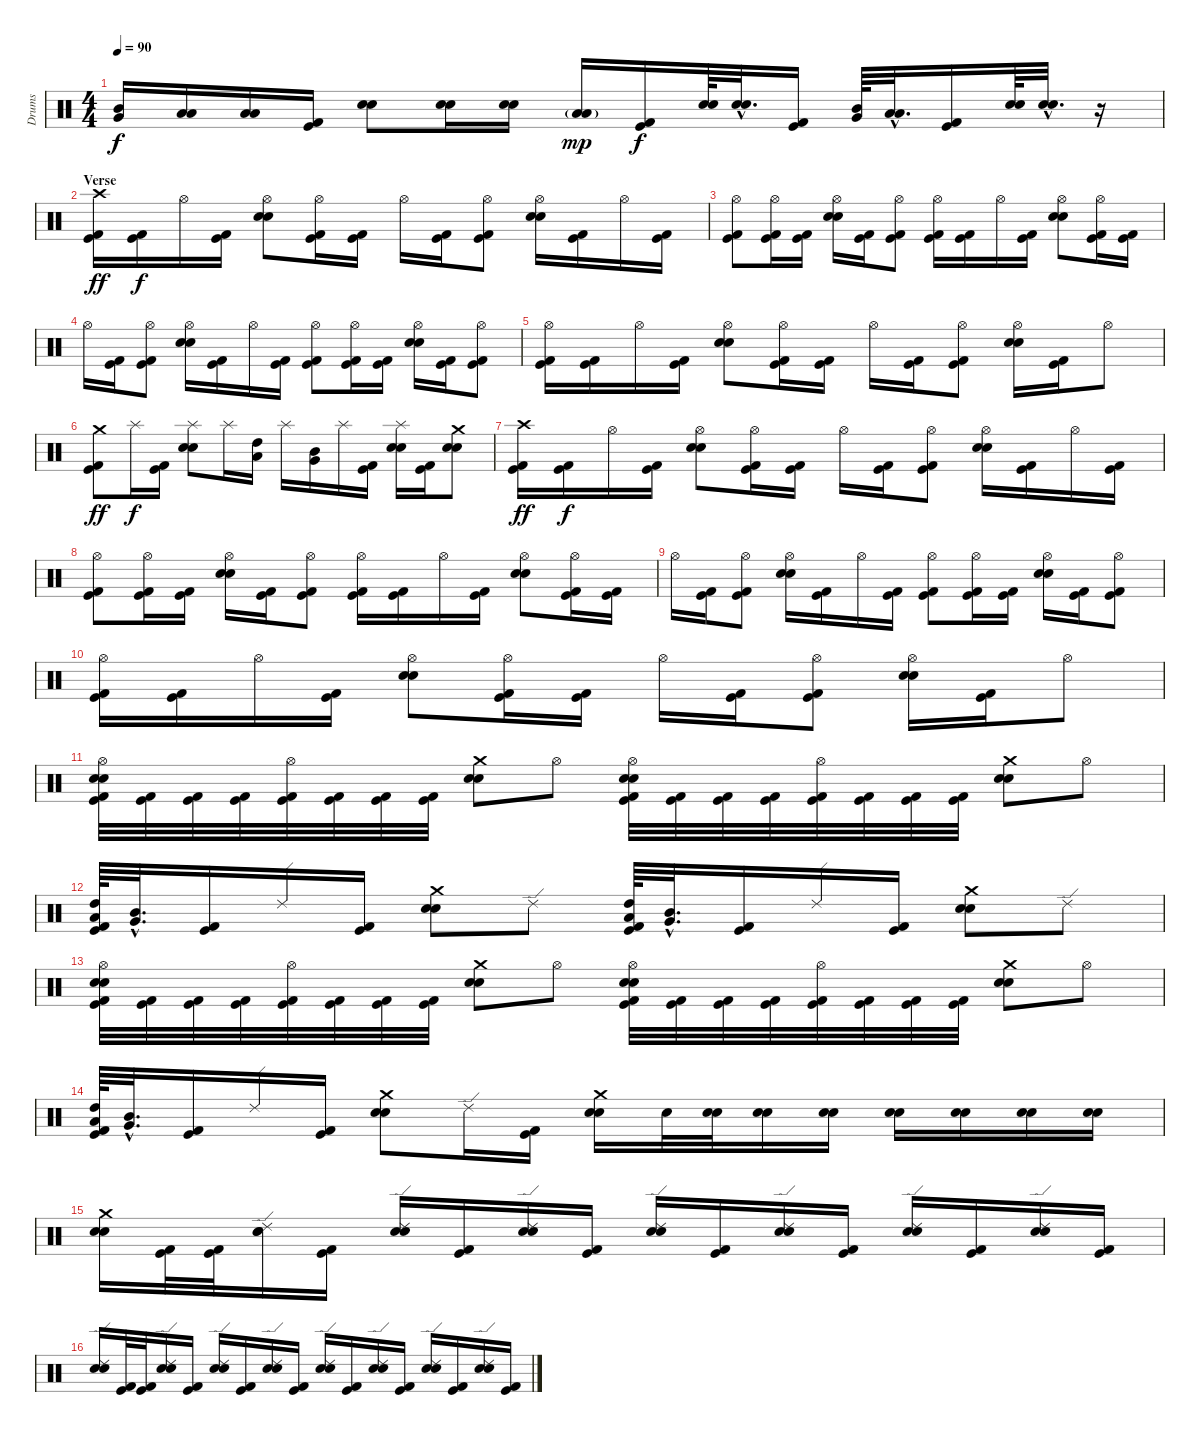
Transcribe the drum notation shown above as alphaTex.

\track ("Drums" "Drums") {instrument percussion}
\staff {score}
\articulation defaults
\ts (4 4)
\tempo 90
\clef neutral
\ks c
("Mid Tom (hit)" "Very Low Tom (hit)").16{dy f} ("Low Tom (hit)" "Low Floor Tom (hit)").16 ("Low Tom (hit)" "Low Floor Tom (hit)").16 ("Kick (hit) 2" "Kick (hit)").16 ("Electric Snare (hit)" "Snare (hit) 2").8 ("Electric Snare (hit)" "Snare (hit) 2").16 ("Electric Snare (hit)" "Snare (hit) 2").16 ("Low Tom (hit)"{g} "Low Floor Tom (hit)"{g}).16{dy mp} ("Kick (hit) 2" "Kick (hit)").16{dy f} ("Electric Snare (hit)" "Snare (hit) 2").64 ("Electric Snare (hit)"{hac} "Snare (hit) 2"{hac}).32{d} ("Kick (hit) 2" "Kick (hit)").16 ("Mid Tom (hit)" "Very Low Tom (hit)").64 ("Low Tom (hit)"{hac} "Low Floor Tom (hit)"{hac}).32{d} ("Kick (hit) 2" "Kick (hit)").16 ("Electric Snare (hit)" "Snare (hit) 2").64 ("Electric Snare (hit)"{hac} "Snare (hit) 2"{hac}).32{d} r.16 |
\section ("" "Verse")
("Crash high (hit)" "Kick (hit) 2" "Kick (hit)").16{dy ff} ("Kick (hit) 2" "Kick (hit)").16{dy f} "Hi-Hat (open)".16 ("Kick (hit) 2" "Kick (hit)").16 ("Hi-Hat (open)" "Electric Snare (hit)" "Snare (hit) 2").8 ("Hi-Hat (open)" "Kick (hit) 2" "Kick (hit)").16 ("Kick (hit) 2" "Kick (hit)").16 "Hi-Hat (open)".16 ("Kick (hit) 2" "Kick (hit)").16 ("Hi-Hat (open)" "Kick (hit) 2" "Kick (hit)").8 ("Hi-Hat (open)" "Electric Snare (hit)" "Snare (hit) 2").16 ("Kick (hit) 2" "Kick (hit)").16 "Hi-Hat (open)".16 ("Kick (hit) 2" "Kick (hit)").16 |
("Hi-Hat (open)" "Kick (hit) 2" "Kick (hit)").8 ("Hi-Hat (open)" "Kick (hit) 2" "Kick (hit)").16 ("Kick (hit) 2" "Kick (hit)").16 ("Hi-Hat (open)" "Electric Snare (hit)" "Snare (hit) 2").16 ("Kick (hit) 2" "Kick (hit)").16 ("Hi-Hat (open)" "Kick (hit) 2" "Kick (hit)").8 ("Hi-Hat (open)" "Kick (hit) 2" "Kick (hit)").16 ("Kick (hit) 2" "Kick (hit)").16 "Hi-Hat (open)".16 ("Kick (hit) 2" "Kick (hit)").16 ("Hi-Hat (open)" "Electric Snare (hit)" "Snare (hit) 2").8 ("Hi-Hat (open)" "Kick (hit) 2" "Kick (hit)").16 ("Kick (hit) 2" "Kick (hit)").16 |
"Hi-Hat (open)".16 ("Kick (hit) 2" "Kick (hit)").16 ("Hi-Hat (open)" "Kick (hit) 2" "Kick (hit)").8 ("Hi-Hat (open)" "Electric Snare (hit)" "Snare (hit) 2").16 ("Kick (hit) 2" "Kick (hit)").16 "Hi-Hat (open)".16 ("Kick (hit) 2" "Kick (hit)").16 ("Hi-Hat (open)" "Kick (hit) 2" "Kick (hit)").8 ("Hi-Hat (open)" "Kick (hit) 2" "Kick (hit)").16 ("Kick (hit) 2" "Kick (hit)").16 ("Hi-Hat (open)" "Electric Snare (hit)" "Snare (hit) 2").16 ("Kick (hit) 2" "Kick (hit)").16 ("Hi-Hat (open)" "Kick (hit) 2" "Kick (hit)").8 |
("Hi-Hat (open)" "Kick (hit) 2" "Kick (hit)").16 ("Kick (hit) 2" "Kick (hit)").16 "Hi-Hat (open)".16 ("Kick (hit) 2" "Kick (hit)").16 ("Hi-Hat (open)" "Electric Snare (hit)" "Snare (hit) 2").8 ("Hi-Hat (open)" "Kick (hit) 2" "Kick (hit)").16 ("Kick (hit) 2" "Kick (hit)").16 "Hi-Hat (open)".16 ("Kick (hit) 2" "Kick (hit)").16 ("Hi-Hat (open)" "Kick (hit) 2" "Kick (hit)").8 ("Hi-Hat (open)" "Electric Snare (hit)" "Snare (hit) 2").16 ("Kick (hit) 2" "Kick (hit)").16 "Hi-Hat (open)".8 |
("Crash medium (hit)" "Kick (hit) 2" "Kick (hit)").8{dy ff} "Splash (hit)".16{dy f} ("Kick (hit) 2" "Kick (hit)").16 ("Splash (hit)" "Electric Snare (hit)" "Snare (hit) 2").8 "Splash (hit)".16 ("High Tom (hit)" "Low Tom (hit)").16 "Splash (hit)".16 ("Mid Tom (hit)" "Very Low Tom (hit)").16 "Splash (hit)".16 ("Kick (hit) 2" "Kick (hit)").16 ("Splash (hit)" "Electric Snare (hit)" "Snare (hit) 2").16 ("Kick (hit) 2" "Kick (hit)").16 ("Crash medium (hit)" "Electric Snare (hit)" "Snare (hit) 2").8 |
("Crash high (hit)" "Kick (hit) 2" "Kick (hit)").16{dy ff} ("Kick (hit) 2" "Kick (hit)").16{dy f} "Hi-Hat (open)".16 ("Kick (hit) 2" "Kick (hit)").16 ("Hi-Hat (open)" "Electric Snare (hit)" "Snare (hit) 2").8 ("Hi-Hat (open)" "Kick (hit) 2" "Kick (hit)").16 ("Kick (hit) 2" "Kick (hit)").16 "Hi-Hat (open)".16 ("Kick (hit) 2" "Kick (hit)").16 ("Hi-Hat (open)" "Kick (hit) 2" "Kick (hit)").8 ("Hi-Hat (open)" "Electric Snare (hit)" "Snare (hit) 2").16 ("Kick (hit) 2" "Kick (hit)").16 "Hi-Hat (open)".16 ("Kick (hit) 2" "Kick (hit)").16 |
("Hi-Hat (open)" "Kick (hit) 2" "Kick (hit)").8 ("Hi-Hat (open)" "Kick (hit) 2" "Kick (hit)").16 ("Kick (hit) 2" "Kick (hit)").16 ("Hi-Hat (open)" "Electric Snare (hit)" "Snare (hit) 2").16 ("Kick (hit) 2" "Kick (hit)").16 ("Hi-Hat (open)" "Kick (hit) 2" "Kick (hit)").8 ("Hi-Hat (open)" "Kick (hit) 2" "Kick (hit)").16 ("Kick (hit) 2" "Kick (hit)").16 "Hi-Hat (open)".16 ("Kick (hit) 2" "Kick (hit)").16 ("Hi-Hat (open)" "Electric Snare (hit)" "Snare (hit) 2").8 ("Hi-Hat (open)" "Kick (hit) 2" "Kick (hit)").16 ("Kick (hit) 2" "Kick (hit)").16 |
"Hi-Hat (open)".16 ("Kick (hit) 2" "Kick (hit)").16 ("Hi-Hat (open)" "Kick (hit) 2" "Kick (hit)").8 ("Hi-Hat (open)" "Electric Snare (hit)" "Snare (hit) 2").16 ("Kick (hit) 2" "Kick (hit)").16 "Hi-Hat (open)".16 ("Kick (hit) 2" "Kick (hit)").16 ("Hi-Hat (open)" "Kick (hit) 2" "Kick (hit)").8 ("Hi-Hat (open)" "Kick (hit) 2" "Kick (hit)").16 ("Kick (hit) 2" "Kick (hit)").16 ("Hi-Hat (open)" "Electric Snare (hit)" "Snare (hit) 2").16 ("Kick (hit) 2" "Kick (hit)").16 ("Hi-Hat (open)" "Kick (hit) 2" "Kick (hit)").8 |
("Hi-Hat (open)" "Kick (hit) 2" "Kick (hit)").16 ("Kick (hit) 2" "Kick (hit)").16 "Hi-Hat (open)".16 ("Kick (hit) 2" "Kick (hit)").16 ("Hi-Hat (open)" "Electric Snare (hit)" "Snare (hit) 2").8 ("Hi-Hat (open)" "Kick (hit) 2" "Kick (hit)").16 ("Kick (hit) 2" "Kick (hit)").16 "Hi-Hat (open)".16 ("Kick (hit) 2" "Kick (hit)").16 ("Hi-Hat (open)" "Kick (hit) 2" "Kick (hit)").8 ("Hi-Hat (open)" "Electric Snare (hit)" "Snare (hit) 2").16 ("Kick (hit) 2" "Kick (hit)").16 "Hi-Hat (open)".8 |
("Hi-Hat (open)" "Electric Snare (hit)" "Snare (hit) 2" "Kick (hit) 2" "Kick (hit)").32 ("Kick (hit) 2" "Kick (hit)").32 ("Kick (hit) 2" "Kick (hit)").32 ("Kick (hit) 2" "Kick (hit)").32 ("Hi-Hat (open)" "Kick (hit) 2" "Kick (hit)").32 ("Kick (hit) 2" "Kick (hit)").32 ("Kick (hit) 2" "Kick (hit)").32 ("Kick (hit) 2" "Kick (hit)").32 ("Crash medium (hit)" "Electric Snare (hit)" "Snare (hit) 2").8 "Hi-Hat (open)".8 ("Hi-Hat (open)" "Electric Snare (hit)" "Snare (hit) 2" "Kick (hit) 2" "Kick (hit)").32 ("Kick (hit) 2" "Kick (hit)").32 ("Kick (hit) 2" "Kick (hit)").32 ("Kick (hit) 2" "Kick (hit)").32 ("Hi-Hat (open)" "Kick (hit) 2" "Kick (hit)").32 ("Kick (hit) 2" "Kick (hit)").32 ("Kick (hit) 2" "Kick (hit)").32 ("Kick (hit) 2" "Kick (hit)").32 ("Crash medium (hit)" "Electric Snare (hit)" "Snare (hit) 2").8 "Hi-Hat (open)".8 |
("High Tom (hit)" "Low Tom (hit)" "Kick (hit) 2" "Kick (hit)").64 ("Mid Tom (hit)"{hac} "Very Low Tom (hit)"{hac}).32{d} ("Kick (hit) 2" "Kick (hit)").16 "Ride (edge) 2".16 ("Kick (hit) 2" "Kick (hit)").16 ("Crash medium (hit)" "Electric Snare (hit)" "Snare (hit) 2").8 "Ride (edge) 2".8 ("High Tom (hit)" "Low Tom (hit)" "Kick (hit) 2" "Kick (hit)").64 ("Mid Tom (hit)"{hac} "Very Low Tom (hit)"{hac}).32{d} ("Kick (hit) 2" "Kick (hit)").16 "Ride (edge) 2".16 ("Kick (hit) 2" "Kick (hit)").16 ("Crash medium (hit)" "Electric Snare (hit)" "Snare (hit) 2").8 "Ride (edge) 2".8 |
("Hi-Hat (open)" "Electric Snare (hit)" "Snare (hit) 2" "Kick (hit) 2" "Kick (hit)").32 ("Kick (hit) 2" "Kick (hit)").32 ("Kick (hit) 2" "Kick (hit)").32 ("Kick (hit) 2" "Kick (hit)").32 ("Hi-Hat (open)" "Kick (hit) 2" "Kick (hit)").32 ("Kick (hit) 2" "Kick (hit)").32 ("Kick (hit) 2" "Kick (hit)").32 ("Kick (hit) 2" "Kick (hit)").32 ("Crash medium (hit)" "Electric Snare (hit)" "Snare (hit) 2").8 "Hi-Hat (open)".8 ("Hi-Hat (open)" "Electric Snare (hit)" "Snare (hit) 2" "Kick (hit) 2" "Kick (hit)").32 ("Kick (hit) 2" "Kick (hit)").32 ("Kick (hit) 2" "Kick (hit)").32 ("Kick (hit) 2" "Kick (hit)").32 ("Hi-Hat (open)" "Kick (hit) 2" "Kick (hit)").32 ("Kick (hit) 2" "Kick (hit)").32 ("Kick (hit) 2" "Kick (hit)").32 ("Kick (hit) 2" "Kick (hit)").32 ("Crash medium (hit)" "Electric Snare (hit)" "Snare (hit) 2").8 "Hi-Hat (open)".8 |
("High Tom (hit)" "Low Tom (hit)" "Kick (hit) 2" "Kick (hit)").64 ("Mid Tom (hit)"{hac} "Very Low Tom (hit)"{hac}).32{d} ("Kick (hit) 2" "Kick (hit)").16 "Ride (edge) 2".16 ("Kick (hit) 2" "Kick (hit)").16 ("Crash medium (hit)" "Electric Snare (hit)" "Snare (hit) 2").8 "Ride (edge) 2".16 ("Kick (hit) 2" "Kick (hit)").16 ("Crash medium (hit)" "Electric Snare (hit)" "Snare (hit) 2").16 "Snare (hit)"{x}.32 ("Electric Snare (hit)" "Snare (hit) 2").32 ("Electric Snare (hit)" "Snare (hit) 2").16 ("Electric Snare (hit)" "Snare (hit) 2").16 ("Electric Snare (hit)" "Snare (hit) 2").16 ("Electric Snare (hit)" "Snare (hit) 2").16 ("Electric Snare (hit)" "Snare (hit) 2").16 ("Electric Snare (hit)" "Snare (hit) 2").16 |
("Crash medium (hit)" "Electric Snare (hit)" "Snare (hit) 2").16 ("Kick (hit) 2" "Kick (hit)").32 ("Kick (hit) 2" "Kick (hit)").32 ("Ride (edge) 2" "Electric Snare (hit)" "Snare (hit) 2").16 ("Kick (hit) 2" "Kick (hit)").16 ("Ride (edge) 2" "Electric Snare (hit)" "Snare (hit) 2").16 ("Kick (hit) 2" "Kick (hit)").16 ("Ride (edge) 2" "Electric Snare (hit)" "Snare (hit) 2").16 ("Kick (hit) 2" "Kick (hit)").16 ("Ride (edge) 2" "Electric Snare (hit)" "Snare (hit) 2").16 ("Kick (hit) 2" "Kick (hit)").16 ("Ride (edge) 2" "Electric Snare (hit)" "Snare (hit) 2").16 ("Kick (hit) 2" "Kick (hit)").16 ("Ride (edge) 2" "Electric Snare (hit)" "Snare (hit) 2").16 ("Kick (hit) 2" "Kick (hit)").16 ("Ride (edge) 2" "Electric Snare (hit)" "Snare (hit) 2").16 ("Kick (hit) 2" "Kick (hit)").16 |
("Ride (edge) 2" "Electric Snare (hit)" "Snare (hit) 2").16 ("Kick (hit) 2" "Kick (hit)").32 ("Kick (hit) 2" "Kick (hit)").32 ("Ride (edge) 2" "Electric Snare (hit)" "Snare (hit) 2").16 ("Kick (hit) 2" "Kick (hit)").16 ("Ride (edge) 2" "Electric Snare (hit)" "Snare (hit) 2").16 ("Kick (hit) 2" "Kick (hit)").16 ("Ride (edge) 2" "Electric Snare (hit)" "Snare (hit) 2").16 ("Kick (hit) 2" "Kick (hit)").16 ("Ride (edge) 2" "Electric Snare (hit)" "Snare (hit) 2").16 ("Kick (hit) 2" "Kick (hit)").16 ("Ride (edge) 2" "Electric Snare (hit)" "Snare (hit) 2").16 ("Kick (hit) 2" "Kick (hit)").16 ("Ride (edge) 2" "Electric Snare (hit)" "Snare (hit) 2").16 ("Kick (hit) 2" "Kick (hit)").16 ("Ride (edge) 2" "Electric Snare (hit)" "Snare (hit) 2").16 ("Kick (hit) 2" "Kick (hit)").16
